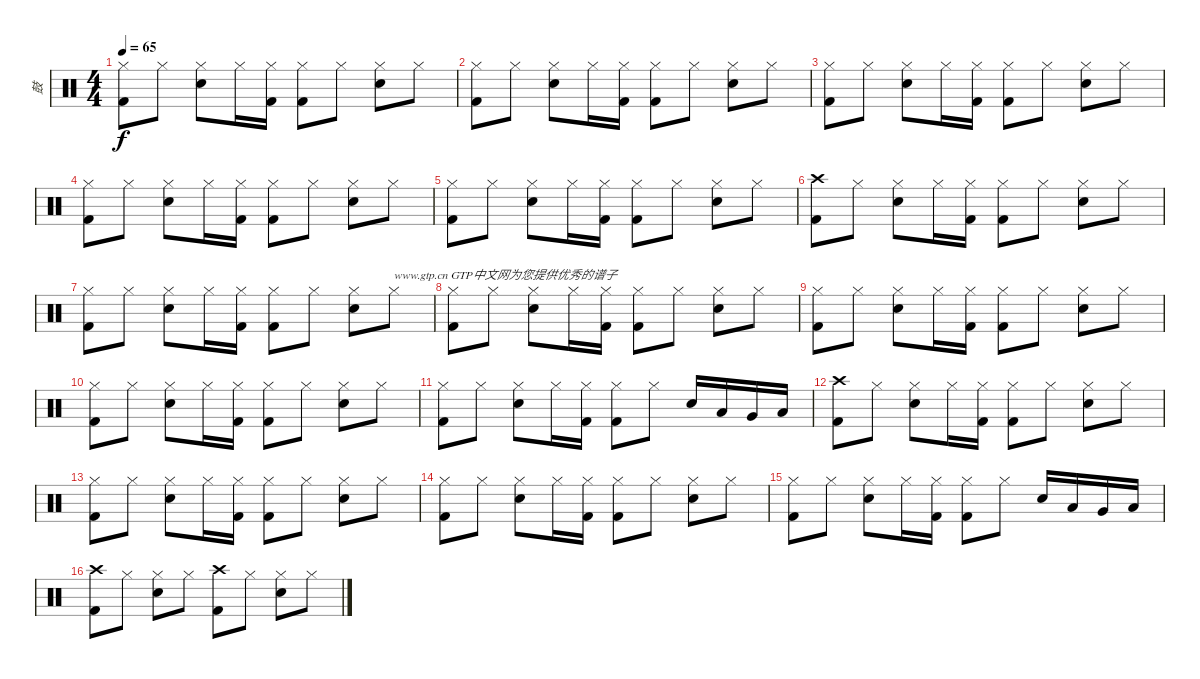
\track ("鼓" "鼓") {instrument percussion}
\staff {score}
\articulation defaults
\ts (4 4)
\tempo 65
\clef neutral
\ks c
("Kick (hit) 2" "Hi-Hat (closed)").8{dy f} "Hi-Hat (closed)".8 ("Snare (hit) 2" "Hi-Hat (closed)").8 "Hi-Hat (closed)".16 ("Kick (hit) 2" "Hi-Hat (closed)").16 ("Kick (hit) 2" "Hi-Hat (closed)").8 "Hi-Hat (closed)".8 ("Snare (hit) 2" "Hi-Hat (closed)").8 "Hi-Hat (closed)".8 |
("Kick (hit) 2" "Hi-Hat (closed)").8 "Hi-Hat (closed)".8 ("Snare (hit) 2" "Hi-Hat (closed)").8 "Hi-Hat (closed)".16 ("Kick (hit) 2" "Hi-Hat (closed)").16 ("Kick (hit) 2" "Hi-Hat (closed)").8 "Hi-Hat (closed)".8 ("Snare (hit) 2" "Hi-Hat (closed)").8 "Hi-Hat (closed)".8 |
("Kick (hit) 2" "Hi-Hat (closed)").8 "Hi-Hat (closed)".8 ("Snare (hit) 2" "Hi-Hat (closed)").8 "Hi-Hat (closed)".16 ("Kick (hit) 2" "Hi-Hat (closed)").16 ("Kick (hit) 2" "Hi-Hat (closed)").8 "Hi-Hat (closed)".8 ("Snare (hit) 2" "Hi-Hat (closed)").8 "Hi-Hat (closed)".8 |
("Kick (hit) 2" "Hi-Hat (closed)").8 "Hi-Hat (closed)".8 ("Snare (hit) 2" "Hi-Hat (closed)").8 "Hi-Hat (closed)".16 ("Kick (hit) 2" "Hi-Hat (closed)").16 ("Kick (hit) 2" "Hi-Hat (closed)").8 "Hi-Hat (closed)".8 ("Snare (hit) 2" "Hi-Hat (closed)").8 "Hi-Hat (closed)".8 |
("Kick (hit) 2" "Hi-Hat (closed)").8 "Hi-Hat (closed)".8 ("Snare (hit) 2" "Hi-Hat (closed)").8 "Hi-Hat (closed)".16 ("Kick (hit) 2" "Hi-Hat (closed)").16 ("Kick (hit) 2" "Hi-Hat (closed)").8 "Hi-Hat (closed)".8 ("Snare (hit) 2" "Hi-Hat (closed)").8 "Hi-Hat (closed)".8 |
("Kick (hit) 2" "Crash high (hit)").8 "Hi-Hat (closed)".8 ("Snare (hit) 2" "Hi-Hat (closed)").8 "Hi-Hat (closed)".16 ("Kick (hit) 2" "Hi-Hat (closed)").16 ("Kick (hit) 2" "Hi-Hat (closed)").8 "Hi-Hat (closed)".8 ("Snare (hit) 2" "Hi-Hat (closed)").8 "Hi-Hat (closed)".8 |
("Kick (hit) 2" "Hi-Hat (closed)").8 "Hi-Hat (closed)".8 ("Snare (hit) 2" "Hi-Hat (closed)").8 "Hi-Hat (closed)".16 ("Kick (hit) 2" "Hi-Hat (closed)").16 ("Kick (hit) 2" "Hi-Hat (closed)").8 "Hi-Hat (closed)".8 ("Snare (hit) 2" "Hi-Hat (closed)").8 "Hi-Hat (closed)".8{txt "www.gtp.cn GTP中文网为您提供优秀的谱子"} |
("Kick (hit) 2" "Hi-Hat (closed)").8 "Hi-Hat (closed)".8 ("Snare (hit) 2" "Hi-Hat (closed)").8 "Hi-Hat (closed)".16 ("Kick (hit) 2" "Hi-Hat (closed)").16 ("Kick (hit) 2" "Hi-Hat (closed)").8 "Hi-Hat (closed)".8 ("Snare (hit) 2" "Hi-Hat (closed)").8 "Hi-Hat (closed)".8 |
("Kick (hit) 2" "Hi-Hat (closed)").8 "Hi-Hat (closed)".8 ("Snare (hit) 2" "Hi-Hat (closed)").8 "Hi-Hat (closed)".16 ("Kick (hit) 2" "Hi-Hat (closed)").16 ("Kick (hit) 2" "Hi-Hat (closed)").8 "Hi-Hat (closed)".8 ("Snare (hit) 2" "Hi-Hat (closed)").8 "Hi-Hat (closed)".8 |
("Kick (hit) 2" "Hi-Hat (closed)").8 "Hi-Hat (closed)".8 ("Snare (hit) 2" "Hi-Hat (closed)").8 "Hi-Hat (closed)".16 ("Kick (hit) 2" "Hi-Hat (closed)").16 ("Kick (hit) 2" "Hi-Hat (closed)").8 "Hi-Hat (closed)".8 ("Snare (hit) 2" "Hi-Hat (closed)").8 "Hi-Hat (closed)".8 |
("Kick (hit) 2" "Hi-Hat (closed)").8 "Hi-Hat (closed)".8 ("Snare (hit) 2" "Hi-Hat (closed)").8 "Hi-Hat (closed)".16 ("Kick (hit) 2" "Hi-Hat (closed)").16 ("Kick (hit) 2" "Hi-Hat (closed)").8 "Hi-Hat (closed)".8 "Snare (hit) 2".16 "Low Floor Tom (hit)".16 "Very Low Tom (hit)".16 "Low Tom (hit)".16 |
("Kick (hit) 2" "Crash high (hit)").8 "Hi-Hat (closed)".8 ("Snare (hit) 2" "Hi-Hat (closed)").8 "Hi-Hat (closed)".16 ("Kick (hit) 2" "Hi-Hat (closed)").16 ("Kick (hit) 2" "Hi-Hat (closed)").8 "Hi-Hat (closed)".8 ("Snare (hit) 2" "Hi-Hat (closed)").8 "Hi-Hat (closed)".8 |
("Kick (hit) 2" "Hi-Hat (closed)").8 "Hi-Hat (closed)".8 ("Snare (hit) 2" "Hi-Hat (closed)").8 "Hi-Hat (closed)".16 ("Kick (hit) 2" "Hi-Hat (closed)").16 ("Kick (hit) 2" "Hi-Hat (closed)").8 "Hi-Hat (closed)".8 ("Snare (hit) 2" "Hi-Hat (closed)").8 "Hi-Hat (closed)".8 |
("Kick (hit) 2" "Hi-Hat (closed)").8 "Hi-Hat (closed)".8 ("Snare (hit) 2" "Hi-Hat (closed)").8 "Hi-Hat (closed)".16 ("Kick (hit) 2" "Hi-Hat (closed)").16 ("Kick (hit) 2" "Hi-Hat (closed)").8 "Hi-Hat (closed)".8 ("Snare (hit) 2" "Hi-Hat (closed)").8 "Hi-Hat (closed)".8 |
("Kick (hit) 2" "Hi-Hat (closed)").8 "Hi-Hat (closed)".8 ("Snare (hit) 2" "Hi-Hat (closed)").8 "Hi-Hat (closed)".16 ("Kick (hit) 2" "Hi-Hat (closed)").16 ("Kick (hit) 2" "Hi-Hat (closed)").8 "Hi-Hat (closed)".8 "Snare (hit) 2".16 "Low Floor Tom (hit)".16 "Very Low Tom (hit)".16 "Low Tom (hit)".16 |
("Kick (hit) 2" "Crash high (hit)").8 "Hi-Hat (closed)".8 ("Snare (hit) 2" "Hi-Hat (closed)").8 "Hi-Hat (closed)".8 ("Kick (hit) 2" "Crash high (hit)").8 "Hi-Hat (closed)".8 ("Snare (hit) 2" "Hi-Hat (closed)").8 "Hi-Hat (closed)".8
